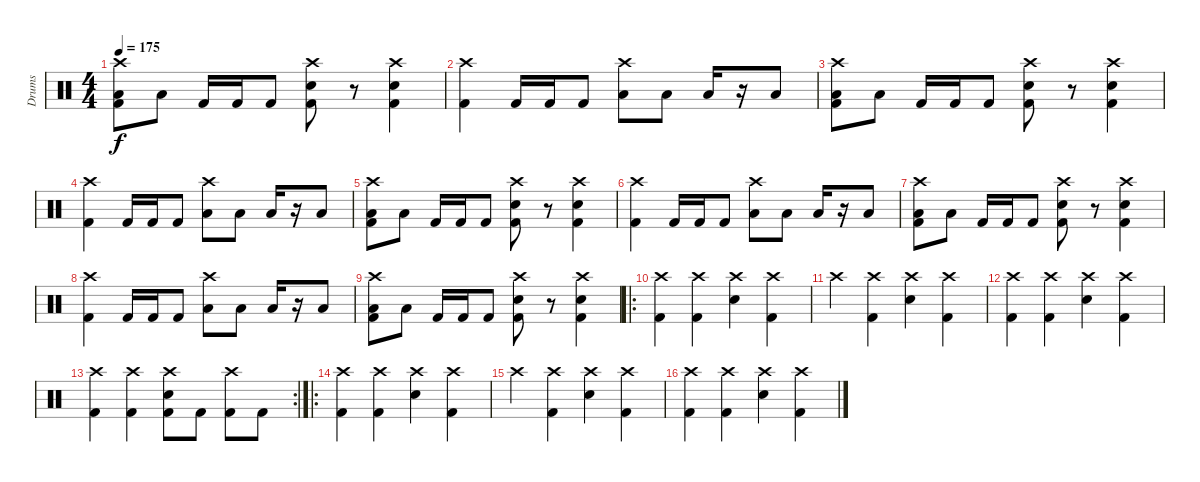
\track ("Drums" "Drums") {instrument percussion}
\staff {score}
\articulation defaults
\ts (4 4)
\tempo 175
\clef neutral
\ks c
("Crash high (hit)" "Low Tom (hit)" "Kick (hit) 2").8{dy f} "Low Tom (hit)".8 "Kick (hit) 2".16 "Kick (hit) 2".16 "Kick (hit) 2".8 ("Crash high (hit)" "Snare (hit) 2" "Kick (hit) 2").8 r.8 ("Crash high (hit)" "Snare (hit) 2" "Kick (hit) 2").4 |
("Crash high (hit)" "Kick (hit) 2").4 "Kick (hit) 2".16 "Kick (hit) 2".16 "Kick (hit) 2".8 ("Crash high (hit)" "Low Tom (hit)").8 "Low Tom (hit)".8 "Low Tom (hit)".16 r.16 "Low Tom (hit)".8 |
("Crash high (hit)" "Low Tom (hit)" "Kick (hit) 2").8 "Low Tom (hit)".8 "Kick (hit) 2".16 "Kick (hit) 2".16 "Kick (hit) 2".8 ("Crash high (hit)" "Snare (hit) 2" "Kick (hit) 2").8 r.8 ("Crash high (hit)" "Snare (hit) 2" "Kick (hit) 2").4 |
("Crash high (hit)" "Kick (hit) 2").4 "Kick (hit) 2".16 "Kick (hit) 2".16 "Kick (hit) 2".8 ("Crash high (hit)" "Low Tom (hit)").8 "Low Tom (hit)".8 "Low Tom (hit)".16 r.16 "Low Tom (hit)".8 |
("Crash high (hit)" "Low Tom (hit)" "Kick (hit) 2").8 "Low Tom (hit)".8 "Kick (hit) 2".16 "Kick (hit) 2".16 "Kick (hit) 2".8 ("Crash high (hit)" "Snare (hit) 2" "Kick (hit) 2").8 r.8 ("Crash high (hit)" "Snare (hit) 2" "Kick (hit) 2").4 |
("Crash high (hit)" "Kick (hit) 2").4 "Kick (hit) 2".16 "Kick (hit) 2".16 "Kick (hit) 2".8 ("Crash high (hit)" "Low Tom (hit)").8 "Low Tom (hit)".8 "Low Tom (hit)".16 r.16 "Low Tom (hit)".8 |
("Crash high (hit)" "Low Tom (hit)" "Kick (hit) 2").8 "Low Tom (hit)".8 "Kick (hit) 2".16 "Kick (hit) 2".16 "Kick (hit) 2".8 ("Crash high (hit)" "Snare (hit) 2" "Kick (hit) 2").8 r.8 ("Crash high (hit)" "Snare (hit) 2" "Kick (hit) 2").4 |
("Crash high (hit)" "Kick (hit) 2").4 "Kick (hit) 2".16 "Kick (hit) 2".16 "Kick (hit) 2".8 ("Crash high (hit)" "Low Tom (hit)").8 "Low Tom (hit)".8 "Low Tom (hit)".16 r.16 "Low Tom (hit)".8 |
("Crash high (hit)" "Low Tom (hit)" "Kick (hit) 2").8 "Low Tom (hit)".8 "Kick (hit) 2".16 "Kick (hit) 2".16 "Kick (hit) 2".8 ("Crash high (hit)" "Snare (hit) 2" "Kick (hit) 2").8 r.8 ("Crash high (hit)" "Snare (hit) 2" "Kick (hit) 2").4 |
\ro
("Crash high (hit)" "Kick (hit) 2").4 ("Crash high (hit)" "Kick (hit) 2").4 ("Crash high (hit)" "Snare (hit) 2").4 ("Crash high (hit)" "Kick (hit) 2").4 |
"Crash high (hit)".4 ("Crash high (hit)" "Kick (hit) 2").4 ("Crash high (hit)" "Snare (hit) 2").4 ("Crash high (hit)" "Kick (hit) 2").4 |
("Crash high (hit)" "Kick (hit) 2").4 ("Crash high (hit)" "Kick (hit) 2").4 ("Crash high (hit)" "Snare (hit) 2").4 ("Crash high (hit)" "Kick (hit) 2").4 |
\rc 2
("Crash high (hit)" "Kick (hit) 2").4 ("Crash high (hit)" "Kick (hit) 2").4 ("Crash high (hit)" "Snare (hit) 2" "Kick (hit) 2").8 "Kick (hit) 2".8 ("Crash high (hit)" "Kick (hit) 2").8 "Kick (hit) 2".8 |
\ro
("Crash high (hit)" "Kick (hit) 2").4 ("Crash high (hit)" "Kick (hit) 2").4 ("Crash high (hit)" "Snare (hit) 2").4 ("Crash high (hit)" "Kick (hit) 2").4 |
"Crash high (hit)".4 ("Crash high (hit)" "Kick (hit) 2").4 ("Crash high (hit)" "Snare (hit) 2").4 ("Crash high (hit)" "Kick (hit) 2").4 |
("Crash high (hit)" "Kick (hit) 2").4 ("Crash high (hit)" "Kick (hit) 2").4 ("Crash high (hit)" "Snare (hit) 2").4 ("Crash high (hit)" "Kick (hit) 2").4
